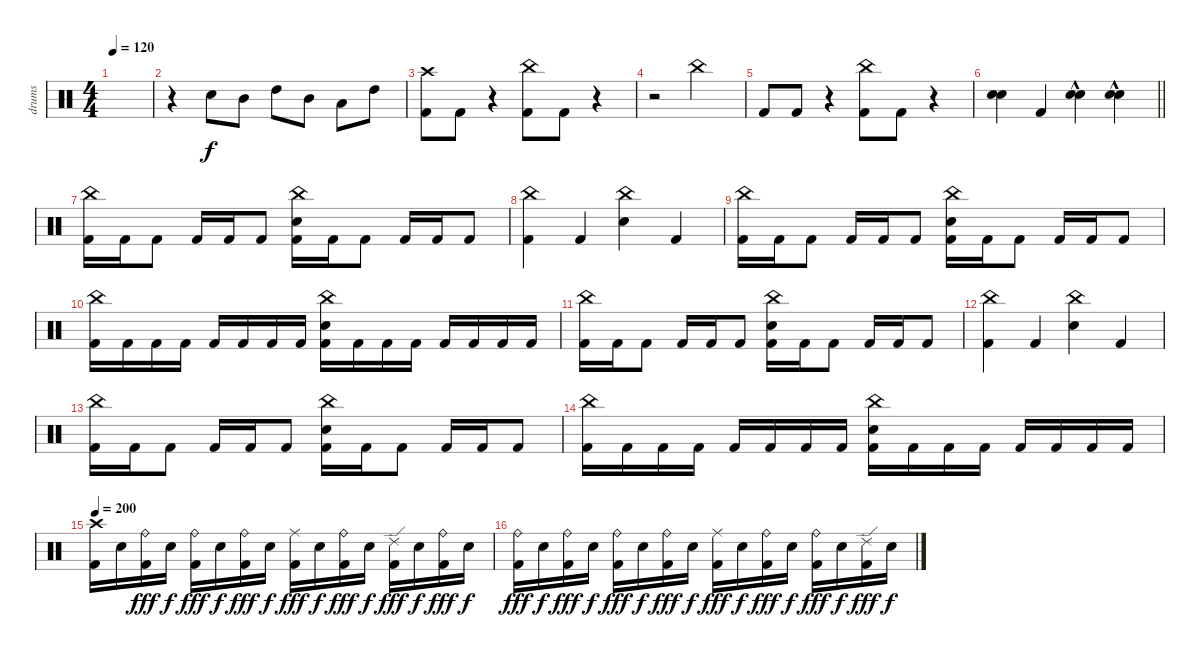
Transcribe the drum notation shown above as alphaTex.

\track ("drums" "drums") {instrument percussion}
\staff {score}
\articulation defaults
\ts (4 4)
\tempo 120
\clef neutral
\ks c
|
r.4 "Electric Snare (hit)".8 "Mid Tom (hit)".8 "High Tom (hit)".8 "Mid Tom (hit)".8 "Low Floor Tom (hit)".8 "High Tom (hit)".8 |
("Crash high (hit)" "Kick (hit) 2").8 "Kick (hit) 2".8 r.4 ("China (hit)" "Kick (hit) 2").8 "Kick (hit) 2".8 r.4 |
r.2 "China (hit)".2 |
"Kick (hit) 2".8 "Kick (hit) 2".8 r.4 ("China (hit)" "Kick (hit) 2").8 "Kick (hit) 2".8 r.4 |
\barLineRight lightlight
("Electric Snare (hit)" "Electric Snare (hit)").4 "Kick (hit) 2".4 ("Electric Snare (hit)"{hac} "Electric Snare (hit)"{hac}).4 ("Electric Snare (hit)"{hac} "Electric Snare (hit)"{hac}).4 |
("China (hit)" "Kick (hit) 2").16 "Kick (hit) 2".16 "Kick (hit) 2".8 "Kick (hit) 2".16 "Kick (hit) 2".16 "Kick (hit) 2".8 ("China (hit)" "Electric Snare (hit)" "Kick (hit) 2").16 "Kick (hit) 2".16 "Kick (hit) 2".8 "Kick (hit) 2".16 "Kick (hit) 2".16 "Kick (hit) 2".8 |
("China (hit)" "Kick (hit) 2").4 "Kick (hit) 2".4 ("China (hit)" "Electric Snare (hit)").4 "Kick (hit) 2".4 |
("China (hit)" "Kick (hit) 2").16 "Kick (hit) 2".16 "Kick (hit) 2".8 "Kick (hit) 2".16 "Kick (hit) 2".16 "Kick (hit) 2".8 ("China (hit)" "Electric Snare (hit)" "Kick (hit) 2").16 "Kick (hit) 2".16 "Kick (hit) 2".8 "Kick (hit) 2".16 "Kick (hit) 2".16 "Kick (hit) 2".8 |
("China (hit)" "Kick (hit) 2").16 "Kick (hit) 2".16 "Kick (hit) 2".16 "Kick (hit) 2".16 "Kick (hit) 2".16 "Kick (hit) 2".16 "Kick (hit) 2".16 "Kick (hit) 2".16 ("China (hit)" "Electric Snare (hit)" "Kick (hit) 2").16 "Kick (hit) 2".16 "Kick (hit) 2".16 "Kick (hit) 2".16 "Kick (hit) 2".16 "Kick (hit) 2".16 "Kick (hit) 2".16 "Kick (hit) 2".16 |
("China (hit)" "Kick (hit) 2").16 "Kick (hit) 2".16 "Kick (hit) 2".8 "Kick (hit) 2".16 "Kick (hit) 2".16 "Kick (hit) 2".8 ("China (hit)" "Electric Snare (hit)" "Kick (hit) 2").16 "Kick (hit) 2".16 "Kick (hit) 2".8 "Kick (hit) 2".16 "Kick (hit) 2".16 "Kick (hit) 2".8 |
("China (hit)" "Kick (hit) 2").4 "Kick (hit) 2".4 ("China (hit)" "Electric Snare (hit)").4 "Kick (hit) 2".4 |
("China (hit)" "Kick (hit) 2").16 "Kick (hit) 2".16 "Kick (hit) 2".8 "Kick (hit) 2".16 "Kick (hit) 2".16 "Kick (hit) 2".8 ("China (hit)" "Electric Snare (hit)" "Kick (hit) 2").16 "Kick (hit) 2".16 "Kick (hit) 2".8 "Kick (hit) 2".16 "Kick (hit) 2".16 "Kick (hit) 2".8 |
("China (hit)" "Kick (hit) 2").16 "Kick (hit) 2".16 "Kick (hit) 2".16 "Kick (hit) 2".16 "Kick (hit) 2".16 "Kick (hit) 2".16 "Kick (hit) 2".16 "Kick (hit) 2".16 ("China (hit)" "Electric Snare (hit)" "Kick (hit) 2").16 "Kick (hit) 2".16 "Kick (hit) 2".16 "Kick (hit) 2".16 "Kick (hit) 2".16 "Kick (hit) 2".16 "Kick (hit) 2".16 "Kick (hit) 2".16 |
\tempo 200
("Crash high (hit)" "Kick (hit) 2").16 "Electric Snare (hit)".16{dy f} ("Ride (bell)" "Kick (hit) 2").16{dy fff} "Electric Snare (hit)".16{dy f} ("Ride (bell)" "Kick (hit) 2").16{dy fff} "Electric Snare (hit)".16{dy f} ("Ride (bell)" "Kick (hit) 2").16{dy fff} "Electric Snare (hit)".16{dy f} ("Ride (middle)" "Kick (hit) 2").16{dy fff} "Electric Snare (hit)".16{dy f} ("Ride (bell)" "Kick (hit) 2").16{dy fff} "Electric Snare (hit)".16{dy f} ("Ride (edge) 2" "Kick (hit) 2").16{dy fff} "Electric Snare (hit)".16{dy f} ("Ride (bell)" "Kick (hit) 2").16{dy fff} "Electric Snare (hit)".16{dy f} |
("Ride (bell)" "Kick (hit) 2").16{dy fff} "Electric Snare (hit)".16{dy f} ("Ride (bell)" "Kick (hit) 2").16{dy fff} "Electric Snare (hit)".16{dy f} ("Ride (bell)" "Kick (hit) 2").16{dy fff} "Electric Snare (hit)".16{dy f} ("Ride (bell)" "Kick (hit) 2").16{dy fff} "Electric Snare (hit)".16{dy f} ("Ride (middle)" "Kick (hit) 2").16{dy fff} "Electric Snare (hit)".16{dy f} ("Ride (bell)" "Kick (hit) 2").16{dy fff} "Electric Snare (hit)".16{dy f} ("Ride (bell)" "Kick (hit) 2").16{dy fff} "Electric Snare (hit)".16{dy f} ("Ride (edge) 2" "Kick (hit) 2").16{dy fff} "Electric Snare (hit)".16{dy f}
